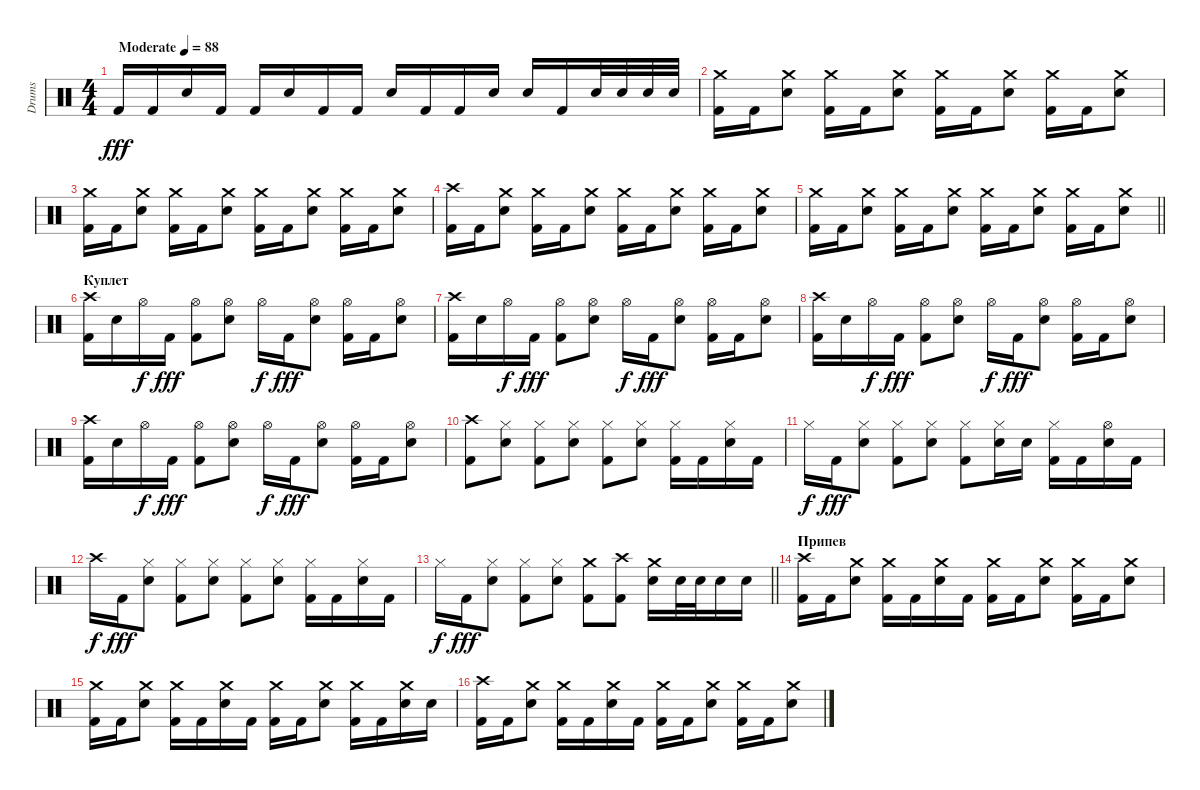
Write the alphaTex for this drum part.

\track ("Drums" "Drums") {instrument percussion}
\staff {score}
\articulation defaults
\ts (4 4)
\tempo (88 "Moderate")
\clef neutral
\ks c "Kick (hit) 2".16{dy fff} "Kick (hit) 2".16 "Electric Snare (hit)".16 "Kick (hit) 2".16 "Kick (hit) 2".16 "Electric Snare (hit)".16 "Kick (hit) 2".16 "Kick (hit) 2".16 "Electric Snare (hit)".16 "Kick (hit) 2".16 "Kick (hit) 2".16 "Electric Snare (hit)".16 "Electric Snare (hit)".16 "Kick (hit) 2".16 "Electric Snare (hit)".32 "Electric Snare (hit)".32 "Electric Snare (hit)".32 "Electric Snare (hit)".32
|
("Kick (hit) 2" "Crash medium (hit)").16 "Kick (hit) 2".16 ("Electric Snare (hit)" "Crash medium (hit)").8 ("Kick (hit) 2" "Crash medium (hit)").16 "Kick (hit) 2".16 ("Electric Snare (hit)" "Crash medium (hit)").8 ("Kick (hit) 2" "Crash medium (hit)").16 "Kick (hit) 2".16 ("Electric Snare (hit)" "Crash medium (hit)").8 ("Kick (hit) 2" "Crash medium (hit)").16 "Kick (hit) 2".16 ("Electric Snare (hit)" "Crash medium (hit)").8 |
("Kick (hit) 2" "Crash medium (hit)").16 "Kick (hit) 2".16 ("Electric Snare (hit)" "Crash medium (hit)").8 ("Kick (hit) 2" "Crash medium (hit)").16 "Kick (hit) 2".16 ("Electric Snare (hit)" "Crash medium (hit)").8 ("Kick (hit) 2" "Crash medium (hit)").16 "Kick (hit) 2".16 ("Electric Snare (hit)" "Crash medium (hit)").8 ("Kick (hit) 2" "Crash medium (hit)").16 "Kick (hit) 2".16 ("Electric Snare (hit)" "Crash medium (hit)").8 |
("Kick (hit) 2" "Crash high (hit)").16 "Kick (hit) 2".16 ("Electric Snare (hit)" "Crash medium (hit)").8 ("Kick (hit) 2" "Crash medium (hit)").16 "Kick (hit) 2".16 ("Electric Snare (hit)" "Crash medium (hit)").8 ("Kick (hit) 2" "Crash medium (hit)").16 "Kick (hit) 2".16 ("Electric Snare (hit)" "Crash medium (hit)").8 ("Kick (hit) 2" "Crash medium (hit)").16 "Kick (hit) 2".16 ("Electric Snare (hit)" "Crash medium (hit)").8 |
\barLineRight lightlight
("Kick (hit) 2" "Crash medium (hit)").16 "Kick (hit) 2".16 ("Electric Snare (hit)" "Crash medium (hit)").8 ("Kick (hit) 2" "Crash medium (hit)").16 "Kick (hit) 2".16 ("Electric Snare (hit)" "Crash medium (hit)").8 ("Kick (hit) 2" "Crash medium (hit)").16 "Kick (hit) 2".16 ("Electric Snare (hit)" "Crash medium (hit)").8 ("Kick (hit) 2" "Crash medium (hit)").16 "Kick (hit) 2".16 ("Electric Snare (hit)" "Crash medium (hit)").8 |
\section ("" "Куплет")
("Kick (hit) 2" "Crash high (hit)").16 "Electric Snare (hit)".16 "Hi-Hat (open)".16{dy f} "Kick (hit) 2".16{dy fff} ("Kick (hit) 2" "Hi-Hat (open)").8 ("Electric Snare (hit)" "Hi-Hat (open)").8 "Hi-Hat (open)".16{dy f} "Kick (hit) 2".16{dy fff} ("Electric Snare (hit)" "Hi-Hat (open)").8 ("Kick (hit) 2" "Hi-Hat (open)").16 "Kick (hit) 2".16 ("Electric Snare (hit)" "Hi-Hat (open)").8 |
("Kick (hit) 2" "Crash high (hit)").16 "Electric Snare (hit)".16 "Hi-Hat (open)".16{dy f} "Kick (hit) 2".16{dy fff} ("Kick (hit) 2" "Hi-Hat (open)").8 ("Electric Snare (hit)" "Hi-Hat (open)").8 "Hi-Hat (open)".16{dy f} "Kick (hit) 2".16{dy fff} ("Electric Snare (hit)" "Hi-Hat (open)").8 ("Kick (hit) 2" "Hi-Hat (open)").16 "Kick (hit) 2".16 ("Electric Snare (hit)" "Hi-Hat (open)").8 |
("Kick (hit) 2" "Crash high (hit)").16 "Electric Snare (hit)".16 "Hi-Hat (open)".16{dy f} "Kick (hit) 2".16{dy fff} ("Kick (hit) 2" "Hi-Hat (open)").8 ("Electric Snare (hit)" "Hi-Hat (open)").8 "Hi-Hat (open)".16{dy f} "Kick (hit) 2".16{dy fff} ("Electric Snare (hit)" "Hi-Hat (open)").8 ("Kick (hit) 2" "Hi-Hat (open)").16 "Kick (hit) 2".16 ("Electric Snare (hit)" "Hi-Hat (open)").8 |
("Kick (hit) 2" "Crash high (hit)").16 "Electric Snare (hit)".16 "Hi-Hat (open)".16{dy f} "Kick (hit) 2".16{dy fff} ("Kick (hit) 2" "Hi-Hat (open)").8 ("Electric Snare (hit)" "Hi-Hat (open)").8 "Hi-Hat (open)".16{dy f} "Kick (hit) 2".16{dy fff} ("Electric Snare (hit)" "Hi-Hat (open)").8 ("Kick (hit) 2" "Hi-Hat (open)").16 "Kick (hit) 2".16 ("Electric Snare (hit)" "Hi-Hat (open)").8 |
("Kick (hit) 2" "Crash high (hit)").8 ("Electric Snare (hit)" "Hi-Hat (closed)").8 ("Kick (hit) 2" "Hi-Hat (closed)").8 ("Electric Snare (hit)" "Hi-Hat (closed)").8 ("Kick (hit) 2" "Hi-Hat (closed)").8 ("Electric Snare (hit)" "Hi-Hat (closed)").8 ("Kick (hit) 2" "Hi-Hat (closed)").16 "Kick (hit) 2".16 ("Electric Snare (hit)" "Hi-Hat (closed)").16 "Kick (hit) 2".16 |
"Hi-Hat (closed)".16{dy f} "Kick (hit) 2".16{dy fff} ("Electric Snare (hit)" "Hi-Hat (closed)").8 ("Kick (hit) 2" "Hi-Hat (closed)").8 ("Electric Snare (hit)" "Hi-Hat (closed)").8 ("Kick (hit) 2" "Hi-Hat (closed)").8 ("Electric Snare (hit)" "Hi-Hat (closed)").16 "Electric Snare (hit)".16 ("Kick (hit) 2" "Hi-Hat (closed)").16 "Kick (hit) 2".16 ("Electric Snare (hit)" "Hi-Hat (open)").16 "Kick (hit) 2".16 |
"Crash high (hit)".16{dy f} "Kick (hit) 2".16{dy fff} ("Electric Snare (hit)" "Hi-Hat (closed)").8 ("Kick (hit) 2" "Hi-Hat (closed)").8 ("Electric Snare (hit)" "Hi-Hat (closed)").8 ("Kick (hit) 2" "Hi-Hat (closed)").8 ("Electric Snare (hit)" "Hi-Hat (closed)").8 ("Kick (hit) 2" "Hi-Hat (closed)").16 "Kick (hit) 2".16 ("Electric Snare (hit)" "Hi-Hat (closed)").16 "Kick (hit) 2".16 |
\barLineRight lightlight "Hi-Hat (closed)".16{dy f} "Kick (hit) 2".16{dy fff}
("Electric Snare (hit)" "Hi-Hat (closed)").8 ("Kick (hit) 2" "Hi-Hat (closed)").8 ("Electric Snare (hit)" "Hi-Hat (closed)").8 ("Kick (hit) 2" "Crash medium (hit)").8 ("Kick (hit) 2" "Crash high (hit)").8 ("Electric Snare (hit)" "Crash medium (hit)").16 "Electric Snare (hit)".32 "Electric Snare (hit)".32 "Electric Snare (hit)".16 "Electric Snare (hit)".16 |
\section ("" "Припев")
("Kick (hit) 2" "Crash high (hit)").16 "Kick (hit) 2".16 ("Electric Snare (hit)" "Crash medium (hit)").8 ("Kick (hit) 2" "Crash medium (hit)").16 "Kick (hit) 2".16 ("Electric Snare (hit)" "Crash medium (hit)").16 "Kick (hit) 2".16 ("Kick (hit) 2" "Crash medium (hit)").16 "Kick (hit) 2".16 ("Electric Snare (hit)" "Crash medium (hit)").8 ("Kick (hit) 2" "Crash medium (hit)").16 "Kick (hit) 2".16 ("Electric Snare (hit)" "Crash medium (hit)").8 |
("Kick (hit) 2" "Crash medium (hit)").16 "Kick (hit) 2".16 ("Electric Snare (hit)" "Crash medium (hit)").8 ("Kick (hit) 2" "Crash medium (hit)").16 "Kick (hit) 2".16 ("Electric Snare (hit)" "Crash medium (hit)").16 "Kick (hit) 2".16 ("Kick (hit) 2" "Crash medium (hit)").16 "Kick (hit) 2".16 ("Electric Snare (hit)" "Crash medium (hit)").8 ("Kick (hit) 2" "Crash medium (hit)").16 "Kick (hit) 2".16 ("Electric Snare (hit)" "Crash medium (hit)").16 "Electric Snare (hit)".16 |
("Kick (hit) 2" "Crash high (hit)").16 "Kick (hit) 2".16 ("Electric Snare (hit)" "Crash medium (hit)").8 ("Kick (hit) 2" "Crash medium (hit)").16 "Kick (hit) 2".16 ("Electric Snare (hit)" "Crash medium (hit)").16 "Kick (hit) 2".16 ("Kick (hit) 2" "Crash medium (hit)").16 "Kick (hit) 2".16 ("Electric Snare (hit)" "Crash medium (hit)").8 ("Kick (hit) 2" "Crash medium (hit)").16 "Kick (hit) 2".16 ("Electric Snare (hit)" "Crash medium (hit)").8
